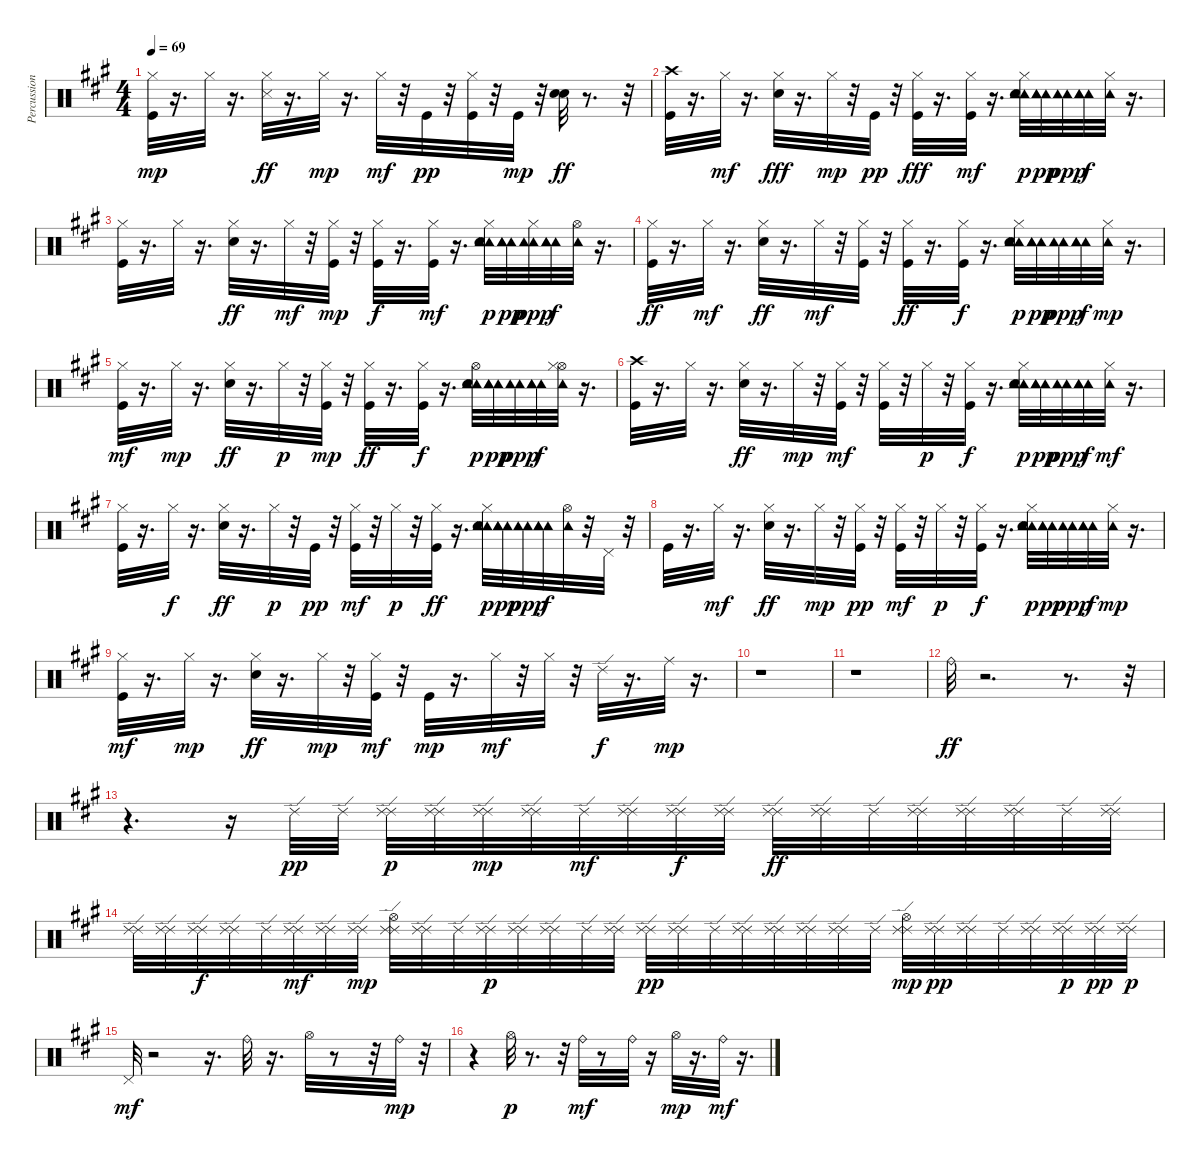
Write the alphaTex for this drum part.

\track ("Percussions" "Percussion") {instrument percussion}
\staff {score}
\articulation defaults
\ts (4 4)
\tempo 69
\clef neutral
\ks f#minor
("Hi-Hat (closed)" "Kick (hit)").32{dy mp} r.16{d} "Hi-Hat (closed)".32 r.16{d} ("Hi-Hat (closed)" "Snare (side stick) 3").32{dy ff} r.16{d} "Hi-Hat (closed)".32{dy mp} r.16{d} "Hi-Hat (closed)".32{dy mf} r.32 "Kick (hit)".32{dy pp} r.32 ("Hi-Hat (closed)" "Kick (hit)").32 r.32 "Kick (hit)".32{dy mp} r.32 ("Electric Snare (hit)" "Electric Snare (hit)").32{dy ff} r.8{d} r.32 |
("Kick (hit)" "Crash high (hit)").32 r.16{d} "Hi-Hat (closed)".32{dy mf} r.16{d} ("Electric Snare (hit)" "Hi-Hat (closed)").32{dy fff} r.16{d} "Hi-Hat (closed)".32{dy mp} r.32 "Kick (hit)".32{dy pp} r.32 ("Kick (hit)" "Hi-Hat (closed)").32{dy fff} r.16{d} ("Hi-Hat (closed)" "Kick (hit)").32{dy mf} r.16{d} ("Tambourine (hit)" "Tambourine (hit)" "Hi-Hat (closed)" "Electric Snare (hit)" "Tambourine (hit)").32{dy p} ("Tambourine (hit)" "Tambourine (hit)" "Tambourine (hit)").32{dy pp} ("Tambourine (hit)" "Tambourine (hit)").32{dy ppp} ("Tambourine (hit)" "Tambourine (hit)" "Tambourine (hit)").32{dy f} ("Tambourine (hit)" "Hi-Hat (closed)").32 r.16{d} |
("Hi-Hat (closed)" "Kick (hit)").32 r.16{d} "Hi-Hat (closed)".32 r.16{d} ("Hi-Hat (closed)" "Electric Snare (hit)").32{dy ff} r.16{d} "Hi-Hat (closed)".32{dy mf} r.32 ("Kick (hit)" "Hi-Hat (closed)").32{dy mp} r.32 ("Kick (hit)" "Hi-Hat (closed)").32{dy f} r.16{d} ("Hi-Hat (closed)" "Kick (hit)").32{dy mf} r.16{d} ("Tambourine (hit)" "Hi-Hat (closed)" "Tambourine (hit)" "Electric Snare (hit)" "Tambourine (hit)").32{dy p} ("Tambourine (hit)" "Tambourine (hit)" "Tambourine (hit)").32{dy pp} ("Tambourine (hit)" "Hi-Hat (closed)" "Tambourine (hit)").32{dy ppp} ("Tambourine (hit)" "Tambourine (hit)" "Tambourine (hit)").32{dy f} ("Tambourine (hit)" "Hi-Hat (open)").32 r.16{d} |
("Kick (hit)" "Hi-Hat (closed)").32{dy ff} r.16{d} "Hi-Hat (closed)".32{dy mf} r.16{d} ("Electric Snare (hit)" "Hi-Hat (closed)").32{dy ff} r.16{d} "Hi-Hat (closed)".32{dy mf} r.32 ("Kick (hit)" "Hi-Hat (closed)").32 r.32 ("Kick (hit)" "Hi-Hat (closed)").32{dy ff} r.16{d} ("Kick (hit)" "Hi-Hat (closed)").32{dy f} r.16{d} ("Tambourine (hit)" "Electric Snare (hit)" "Tambourine (hit)" "Hi-Hat (closed)" "Tambourine (hit)").32{dy p} ("Tambourine (hit)" "Tambourine (hit)" "Tambourine (hit)").32{dy pp} ("Tambourine (hit)" "Tambourine (hit)").32{dy ppp} ("Tambourine (hit)" "Tambourine (hit)" "Tambourine (hit)").32{dy f} ("Tambourine (hit)" "Hi-Hat (closed)").32{dy mp} r.16{d} |
("Hi-Hat (closed)" "Kick (hit)").32{dy mf} r.16{d} "Hi-Hat (closed)".32{dy mp} r.16{d} ("Electric Snare (hit)" "Hi-Hat (closed)").32{dy ff} r.16{d} "Hi-Hat (closed)".32{dy p} r.32 ("Kick (hit)" "Hi-Hat (closed)").32{dy mp} r.32 ("Kick (hit)" "Hi-Hat (closed)").32{dy ff} r.16{d} ("Kick (hit)" "Hi-Hat (closed)").32{dy f} r.16{d} ("Tambourine (hit)" "Hi-Hat (open)" "Electric Snare (hit)" "Tambourine (hit)" "Tambourine (hit)").32{dy p} ("Tambourine (hit)" "Tambourine (hit)" "Tambourine (hit)").32{dy pp} ("Tambourine (hit)" "Tambourine (hit)").32{dy ppp} ("Tambourine (hit)" "Tambourine (hit)" "Tambourine (hit)").32{dy f} ("Tambourine (hit)" "Hi-Hat (open)" "Hi-Hat (closed)").32 r.16{d} |
("Kick (hit)" "Crash high (hit)").32 r.16{d} "Hi-Hat (closed)".32 r.16{d} ("Electric Snare (hit)" "Hi-Hat (closed)").32{dy ff} r.16{d} "Hi-Hat (closed)".32{dy mp} r.32 ("Kick (hit)" "Hi-Hat (closed)").32{dy mf} r.32 ("Kick (hit)" "Hi-Hat (closed)").32 r.32 "Hi-Hat (closed)".32{dy p} r.32 ("Kick (hit)" "Hi-Hat (closed)").32{dy f} r.16{d} ("Tambourine (hit)" "Electric Snare (hit)" "Tambourine (hit)" "Hi-Hat (closed)" "Tambourine (hit)").32{dy p} ("Tambourine (hit)" "Tambourine (hit)" "Tambourine (hit)").32{dy pp} ("Tambourine (hit)" "Tambourine (hit)").32{dy ppp} ("Tambourine (hit)" "Tambourine (hit)" "Tambourine (hit)").32{dy f} ("Tambourine (hit)" "Hi-Hat (closed)").32{dy mf} r.16{d} |
("Kick (hit)" "Hi-Hat (closed)").32 r.16{d} "Hi-Hat (closed)".32{dy f} r.16{d} ("Electric Snare (hit)" "Hi-Hat (closed)").32{dy ff} r.16{d} "Hi-Hat (closed)".32{dy p} r.32 "Kick (hit)".32{dy pp} r.32 ("Hi-Hat (closed)" "Kick (hit)").32{dy mf} r.32 "Hi-Hat (closed)".32{dy p} r.32 ("Hi-Hat (closed)" "Kick (hit)").32{dy ff} r.16{d} ("Tambourine (hit)" "Hi-Hat (closed)" "Tambourine (hit)" "Electric Snare (hit)" "Tambourine (hit)").32{dy p} ("Tambourine (hit)" "Tambourine (hit)" "Tambourine (hit)").32{dy pp} ("Tambourine (hit)" "Tambourine (hit)").32{dy ppp} ("Tambourine (hit)" "Tambourine (hit)" "Tambourine (hit)").32{dy f} ("Tambourine (hit)" "Hi-Hat (open)").32 r.32 "Pedal Hi-Hat (hit)".32 r.32 |
"Kick (hit)".32 r.16{d} "Hi-Hat (closed)".32{dy mf} r.16{d} ("Hi-Hat (closed)" "Electric Snare (hit)").32{dy ff} r.16{d} "Hi-Hat (closed)".32{dy mp} r.32 ("Hi-Hat (closed)" "Kick (hit)").32{dy pp} r.32 ("Hi-Hat (closed)" "Kick (hit)").32{dy mf} r.32 "Hi-Hat (closed)".32{dy p} r.32 ("Hi-Hat (closed)" "Kick (hit)").32{dy f} r.16{d} ("Tambourine (hit)" "Hi-Hat (closed)" "Tambourine (hit)" "Electric Snare (hit)" "Tambourine (hit)").32{dy p} ("Tambourine (hit)" "Tambourine (hit)" "Tambourine (hit)").32{dy pp} ("Tambourine (hit)" "Tambourine (hit)").32{dy ppp} ("Tambourine (hit)" "Tambourine (hit)" "Tambourine (hit)").32{dy f} ("Tambourine (hit)" "Hi-Hat (closed)").32{dy mp} r.16{d} |
("Hi-Hat (closed)" "Kick (hit)").32{dy mf} r.16{d} "Hi-Hat (closed)".32{dy mp} r.16{d} ("Electric Snare (hit)" "Hi-Hat (closed)").32{dy ff} r.16{d} "Hi-Hat (closed)".32{dy mp} r.32 ("Kick (hit)" "Hi-Hat (closed)").32{dy mf} r.32 "Kick (hit)".32{dy mp} r.16{d} "Hi-Hat (closed)".32{dy mf} r.32 "Hi-Hat (closed)".32 r.32 "Ride (edge) 2".32{dy f} r.16{d} "Ride (middle)".32{dy mp} r.16{d} |
r.1 |
r.1 |
"Ride (bell)".32{dy ff} r.2{d} r.8{d} r.32 |
r.4{d} r.16 "Ride (edge) 2".32{dy pp} "Ride (edge) 2".32 ("Ride (edge) 2" "Ride (edge) 2").32{dy p} ("Ride (edge) 2" "Ride (edge) 2").32 ("Ride (edge) 2" "Ride (edge) 2").32{dy mp} ("Ride (edge) 2" "Ride (edge) 2").32 "Ride (edge) 2".32{dy mf} ("Ride (edge) 2" "Ride (edge) 2").32 ("Ride (edge) 2" "Ride (edge) 2").32{dy f} ("Ride (edge) 2" "Ride (edge) 2").32 ("Ride (edge) 2" "Ride (edge) 2").32{dy ff} ("Ride (edge) 2" "Ride (edge) 2").32 "Ride (edge) 2".32 ("Ride (edge) 2" "Ride (edge) 2").32 ("Ride (edge) 2" "Ride (edge) 2").32 ("Ride (edge) 2" "Ride (edge) 2").32 "Ride (edge) 2".32 ("Ride (edge) 2" "Ride (edge) 2").32 |
("Ride (edge) 2" "Ride (edge) 2").32 ("Ride (edge) 2" "Ride (edge) 2").32 ("Ride (edge) 2" "Ride (edge) 2").32{dy f} ("Ride (edge) 2" "Ride (edge) 2").32 "Ride (edge) 2".32 ("Ride (edge) 2" "Ride (edge) 2").32{dy mf} ("Ride (edge) 2" "Ride (edge) 2").32 ("Ride (edge) 2" "Ride (edge) 2").32{dy mp} ("Ride (edge) 2" "Hi-Hat (open)" "Ride (edge) 2").32 ("Ride (edge) 2" "Ride (edge) 2").32 "Ride (edge) 2".32 ("Ride (edge) 2" "Ride (edge) 2").32{dy p} ("Ride (edge) 2" "Ride (edge) 2").32 ("Ride (edge) 2" "Ride (edge) 2").32 "Ride (edge) 2".32 ("Ride (edge) 2" "Ride (edge) 2").32 ("Ride (edge) 2" "Ride (edge) 2").32{dy pp} ("Ride (edge) 2" "Ride (edge) 2").32 "Ride (edge) 2".32 ("Ride (edge) 2" "Ride (edge) 2").32 ("Ride (edge) 2" "Ride (edge) 2").32 ("Ride (edge) 2" "Ride (edge) 2").32 ("Ride (edge) 2" "Ride (edge) 2").32 "Ride (edge) 2".32 ("Ride (edge) 2" "Ride (edge) 2" "Hi-Hat (open)").32{dy mp} ("Ride (edge) 2" "Ride (edge) 2").32{dy pp} ("Ride (edge) 2" "Ride (edge) 2").32 "Ride (edge) 2".32 ("Ride (edge) 2" "Ride (edge) 2").32 ("Ride (edge) 2" "Ride (edge) 2").32{dy p} ("Ride (edge) 2" "Ride (edge) 2").32{dy pp} ("Ride (edge) 2" "Ride (edge) 2").32{dy p} |
"Pedal Hi-Hat (hit)".32{dy mf} r.2 r.16{d} "Ride (bell)".32 r.16{d} "Hi-Hat (open)".32 r.8 r.32 "Ride (bell)".32{dy mp} r.32 |
r.4 "Hi-Hat (open)".32{dy p} r.8{d} r.32 "Ride (bell)".32{dy mf} r.8 "Ride (bell)".32 r.16 "Hi-Hat (open)".32{dy mp} r.16{d} "Ride (bell)".32{dy mf} r.16{d}
